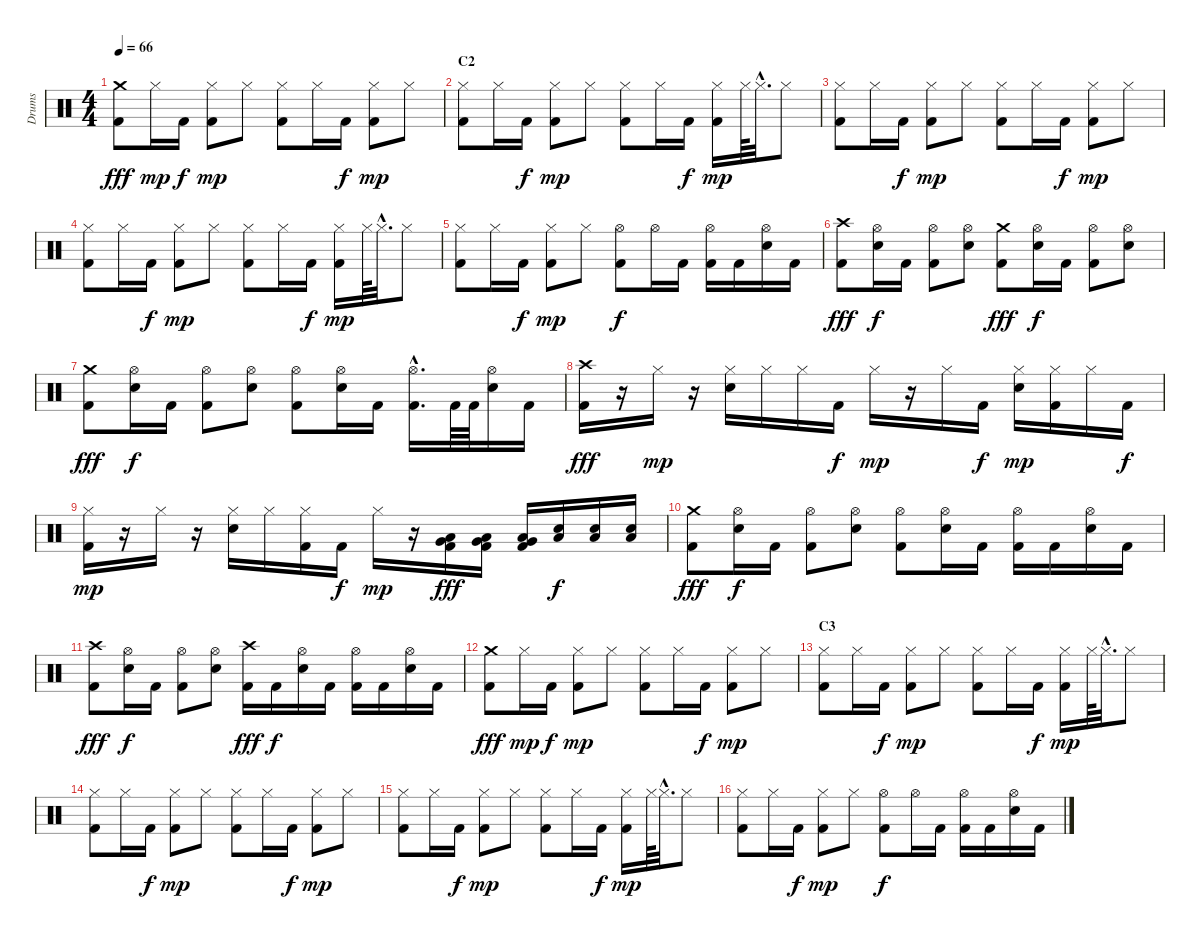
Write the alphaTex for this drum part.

\track ("Drums" "Drums") {instrument percussion}
\staff {score}
\articulation defaults
\ts (4 4)
\tempo 66
\clef neutral
\ks c
("Kick (hit) 2" "Crash medium (hit)").8{dy fff} "Hi-Hat (closed)".16{dy mp} "Kick (hit) 2".16{dy f} ("Kick (hit) 2" "Hi-Hat (closed)").8{dy mp} "Hi-Hat (closed)".8 ("Kick (hit) 2" "Hi-Hat (closed)").8 "Hi-Hat (closed)".16 "Kick (hit) 2".16{dy f} ("Kick (hit) 2" "Hi-Hat (closed)").8{dy mp} "Hi-Hat (closed)".8 |
\section ("" "C2")
("Kick (hit) 2" "Hi-Hat (closed)").8 "Hi-Hat (closed)".16 "Kick (hit) 2".16{dy f} ("Kick (hit) 2" "Hi-Hat (closed)").8{dy mp} "Hi-Hat (closed)".8 ("Kick (hit) 2" "Hi-Hat (closed)").8 "Hi-Hat (closed)".16 "Kick (hit) 2".16{dy f} ("Kick (hit) 2" "Hi-Hat (closed)").16{dy mp} "Hi-Hat (closed)".64 "Hi-Hat (closed)"{hac}.32{d} "Hi-Hat (closed)".8 |
("Kick (hit) 2" "Hi-Hat (closed)").8 "Hi-Hat (closed)".16 "Kick (hit) 2".16{dy f} ("Kick (hit) 2" "Hi-Hat (closed)").8{dy mp} "Hi-Hat (closed)".8 ("Kick (hit) 2" "Hi-Hat (closed)").8 "Hi-Hat (closed)".16 "Kick (hit) 2".16{dy f} ("Kick (hit) 2" "Hi-Hat (closed)").8{dy mp} "Hi-Hat (closed)".8 |
("Kick (hit) 2" "Hi-Hat (closed)").8 "Hi-Hat (closed)".16 "Kick (hit) 2".16{dy f} ("Kick (hit) 2" "Hi-Hat (closed)").8{dy mp} "Hi-Hat (closed)".8 ("Kick (hit) 2" "Hi-Hat (closed)").8 "Hi-Hat (closed)".16 "Kick (hit) 2".16{dy f} ("Kick (hit) 2" "Hi-Hat (closed)").16{dy mp} "Hi-Hat (closed)".64 "Hi-Hat (closed)"{hac}.32{d} "Hi-Hat (closed)".8 |
("Kick (hit) 2" "Hi-Hat (closed)").8 "Hi-Hat (closed)".16 "Kick (hit) 2".16{dy f} ("Kick (hit) 2" "Hi-Hat (closed)").8{dy mp} "Hi-Hat (closed)".8 ("Kick (hit) 2" "Hi-Hat (open)").8{dy f} "Hi-Hat (open)".16 "Kick (hit) 2".16 ("Kick (hit) 2" "Hi-Hat (open)").16 "Kick (hit) 2".16 ("Electric Snare (hit)" "Hi-Hat (open)").16 "Kick (hit) 2".16 |
("Kick (hit) 2" "Crash high (hit)").8{dy fff} ("Electric Snare (hit)" "Hi-Hat (open)").16{dy f} "Kick (hit) 2".16 ("Kick (hit) 2" "Hi-Hat (open)").8 ("Electric Snare (hit)" "Hi-Hat (open)").8 ("Kick (hit) 2" "Crash medium (hit)").8{dy fff} ("Electric Snare (hit)" "Hi-Hat (open)").16{dy f} "Kick (hit) 2".16 ("Kick (hit) 2" "Hi-Hat (open)").8 ("Electric Snare (hit)" "Hi-Hat (open)").8 |
("Kick (hit) 2" "Crash medium (hit)").8{dy fff} ("Electric Snare (hit)" "Hi-Hat (open)").16{dy f} "Kick (hit) 2".16 ("Kick (hit) 2" "Hi-Hat (open)").8 ("Electric Snare (hit)" "Hi-Hat (open)").8 ("Kick (hit) 2" "Hi-Hat (open)").8 ("Electric Snare (hit)" "Hi-Hat (open)").16 "Kick (hit) 2".16 ("Kick (hit) 2"{hac} "Hi-Hat (open)"{hac}).16{d} "Kick (hit) 2".64 "Kick (hit) 2".64 ("Electric Snare (hit)" "Hi-Hat (open)").16 "Kick (hit) 2".16 |
("Kick (hit) 2" "Crash high (hit)").16{dy fff} r.16 "Hi-Hat (closed)".16{dy mp} r.16 ("Electric Snare (hit)" "Hi-Hat (closed)").16 "Hi-Hat (closed)".16 "Hi-Hat (closed)".16 "Kick (hit) 2".16{dy f} "Hi-Hat (closed)".16{dy mp} r.16 "Hi-Hat (closed)".16 "Kick (hit) 2".16{dy f} ("Electric Snare (hit)" "Hi-Hat (closed)").16{dy mp} ("Kick (hit) 2" "Hi-Hat (closed)").16 "Hi-Hat (closed)".16 "Kick (hit) 2".16{dy f} |
("Kick (hit) 2" "Hi-Hat (closed)").16{dy mp} r.16 "Hi-Hat (closed)".16 r.16 ("Electric Snare (hit)" "Hi-Hat (closed)").16 "Hi-Hat (closed)".16 ("Kick (hit) 2" "Hi-Hat (closed)").16 "Kick (hit) 2".16{dy f} "Hi-Hat (closed)".16{dy mp} r.16 ("Kick (hit) 2" "Very Low Tom (hit)" "Low Floor Tom (hit)").16{dy fff} ("Kick (hit) 2" "Very Low Tom (hit)" "Low Floor Tom (hit)").16 ("Kick (hit) 2" "Very Low Tom (hit)" "Low Floor Tom (hit)").16 ("Electric Snare (hit)" "Low Floor Tom (hit)").16{dy f} ("Electric Snare (hit)" "Low Floor Tom (hit)").16 ("Electric Snare (hit)" "Low Floor Tom (hit)").16 |
("Kick (hit) 2" "Crash medium (hit)").8{dy fff} ("Electric Snare (hit)" "Hi-Hat (open)").16{dy f} "Kick (hit) 2".16 ("Kick (hit) 2" "Hi-Hat (open)").8 ("Electric Snare (hit)" "Hi-Hat (open)").8 ("Kick (hit) 2" "Hi-Hat (open)").8 ("Electric Snare (hit)" "Hi-Hat (open)").16 "Kick (hit) 2".16 ("Kick (hit) 2" "Hi-Hat (open)").16 "Kick (hit) 2".16 ("Electric Snare (hit)" "Hi-Hat (open)").16 "Kick (hit) 2".16 |
("Kick (hit) 2" "Crash high (hit)").8{dy fff} ("Electric Snare (hit)" "Hi-Hat (open)").16{dy f} "Kick (hit) 2".16 ("Kick (hit) 2" "Hi-Hat (open)").8 ("Electric Snare (hit)" "Hi-Hat (open)").8 ("Kick (hit) 2" "Crash high (hit)").16{dy fff} "Kick (hit) 2".16{dy f} ("Electric Snare (hit)" "Hi-Hat (open)").16 "Kick (hit) 2".16 ("Kick (hit) 2" "Hi-Hat (open)").16 "Kick (hit) 2".16 ("Electric Snare (hit)" "Hi-Hat (open)").16 "Kick (hit) 2".16 |
("Kick (hit) 2" "Crash medium (hit)").8{dy fff} "Hi-Hat (closed)".16{dy mp} "Kick (hit) 2".16{dy f} ("Kick (hit) 2" "Hi-Hat (closed)").8{dy mp} "Hi-Hat (closed)".8 ("Kick (hit) 2" "Hi-Hat (closed)").8 "Hi-Hat (closed)".16 "Kick (hit) 2".16{dy f} ("Kick (hit) 2" "Hi-Hat (closed)").8{dy mp} "Hi-Hat (closed)".8 |
\section ("" "C3")
("Kick (hit) 2" "Hi-Hat (closed)").8 "Hi-Hat (closed)".16 "Kick (hit) 2".16{dy f} ("Kick (hit) 2" "Hi-Hat (closed)").8{dy mp} "Hi-Hat (closed)".8 ("Kick (hit) 2" "Hi-Hat (closed)").8 "Hi-Hat (closed)".16 "Kick (hit) 2".16{dy f} ("Kick (hit) 2" "Hi-Hat (closed)").16{dy mp} "Hi-Hat (closed)".64 "Hi-Hat (closed)"{hac}.32{d} "Hi-Hat (closed)".8 |
("Kick (hit) 2" "Hi-Hat (closed)").8 "Hi-Hat (closed)".16 "Kick (hit) 2".16{dy f} ("Kick (hit) 2" "Hi-Hat (closed)").8{dy mp} "Hi-Hat (closed)".8 ("Kick (hit) 2" "Hi-Hat (closed)").8 "Hi-Hat (closed)".16 "Kick (hit) 2".16{dy f} ("Kick (hit) 2" "Hi-Hat (closed)").8{dy mp} "Hi-Hat (closed)".8 |
("Kick (hit) 2" "Hi-Hat (closed)").8 "Hi-Hat (closed)".16 "Kick (hit) 2".16{dy f} ("Kick (hit) 2" "Hi-Hat (closed)").8{dy mp} "Hi-Hat (closed)".8 ("Kick (hit) 2" "Hi-Hat (closed)").8 "Hi-Hat (closed)".16 "Kick (hit) 2".16{dy f} ("Kick (hit) 2" "Hi-Hat (closed)").16{dy mp} "Hi-Hat (closed)".64 "Hi-Hat (closed)"{hac}.32{d} "Hi-Hat (closed)".8 |
("Kick (hit) 2" "Hi-Hat (closed)").8 "Hi-Hat (closed)".16 "Kick (hit) 2".16{dy f} ("Kick (hit) 2" "Hi-Hat (closed)").8{dy mp} "Hi-Hat (closed)".8 ("Kick (hit) 2" "Hi-Hat (open)").8{dy f} "Hi-Hat (open)".16 "Kick (hit) 2".16 ("Kick (hit) 2" "Hi-Hat (open)").16 "Kick (hit) 2".16 ("Electric Snare (hit)" "Hi-Hat (open)").16 "Kick (hit) 2".16
